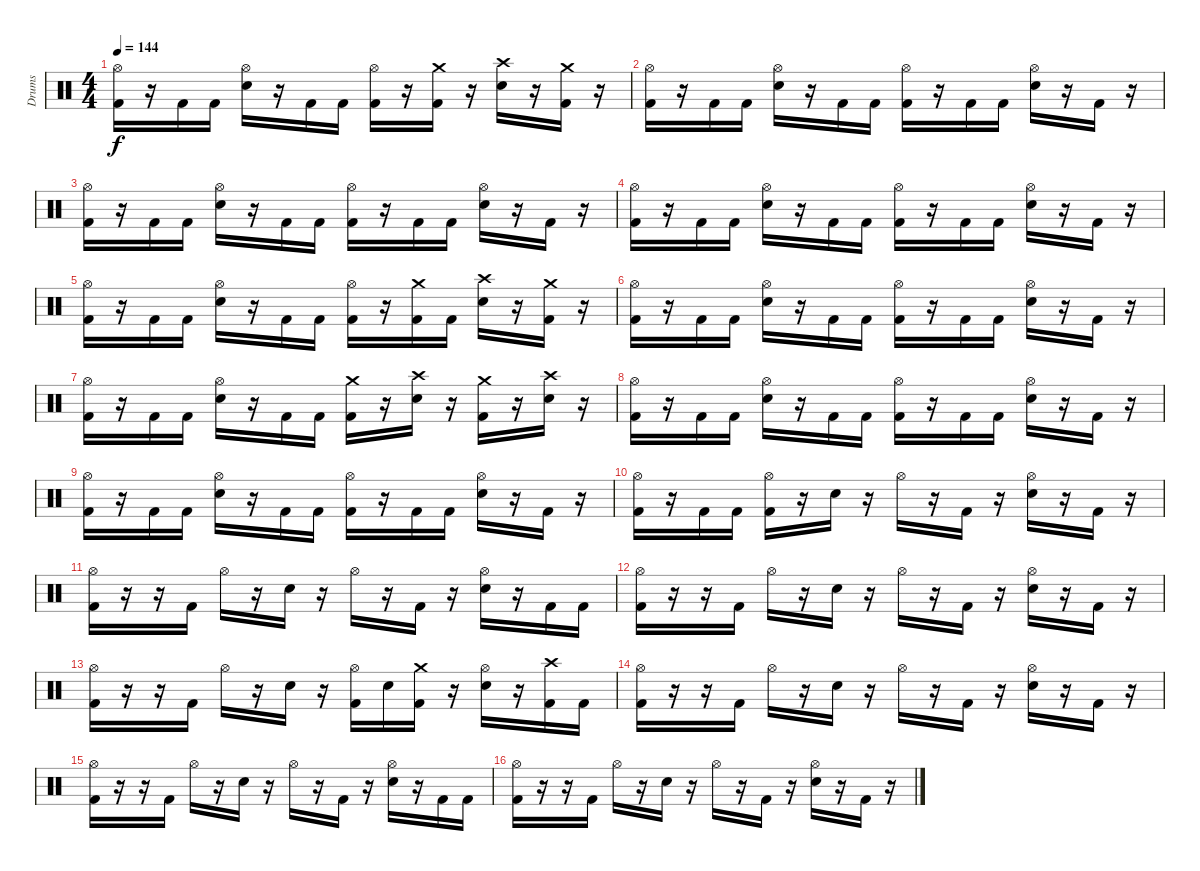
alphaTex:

\track ("Drums" "Drums") {instrument percussion}
\staff {score}
\articulation defaults
\ts (4 4)
\tempo 144
\clef neutral
\ks c
("Hi-Hat (open)" "Kick (hit) 2").16{dy f} r.16 "Kick (hit) 2".16 "Kick (hit) 2".16 ("Hi-Hat (open)" "Snare (hit) 2").16 r.16 "Kick (hit) 2".16 "Kick (hit) 2".16 ("Hi-Hat (open)" "Kick (hit) 2").16 r.16 ("Crash medium (hit)" "Kick (hit) 2").16 r.16 ("Crash high (hit)" "Snare (hit) 2").16 r.16 ("Crash medium (hit)" "Kick (hit) 2").16 r.16 |
("Hi-Hat (open)" "Kick (hit) 2").16 r.16 "Kick (hit) 2".16 "Kick (hit) 2".16 ("Hi-Hat (open)" "Snare (hit) 2").16 r.16 "Kick (hit) 2".16 "Kick (hit) 2".16 ("Hi-Hat (open)" "Kick (hit) 2").16 r.16 "Kick (hit) 2".16 "Kick (hit) 2".16 ("Hi-Hat (open)" "Snare (hit) 2").16 r.16 "Kick (hit) 2".16 r.16 |
("Hi-Hat (open)" "Kick (hit) 2").16 r.16 "Kick (hit) 2".16 "Kick (hit) 2".16 ("Hi-Hat (open)" "Snare (hit) 2").16 r.16 "Kick (hit) 2".16 "Kick (hit) 2".16 ("Hi-Hat (open)" "Kick (hit) 2").16 r.16 "Kick (hit) 2".16 "Kick (hit) 2".16 ("Hi-Hat (open)" "Snare (hit) 2").16 r.16 "Kick (hit) 2".16 r.16 |
("Hi-Hat (open)" "Kick (hit) 2").16 r.16 "Kick (hit) 2".16 "Kick (hit) 2".16 ("Hi-Hat (open)" "Snare (hit) 2").16 r.16 "Kick (hit) 2".16 "Kick (hit) 2".16 ("Hi-Hat (open)" "Kick (hit) 2").16 r.16 "Kick (hit) 2".16 "Kick (hit) 2".16 ("Hi-Hat (open)" "Snare (hit) 2").16 r.16 "Kick (hit) 2".16 r.16 |
("Hi-Hat (open)" "Kick (hit) 2").16 r.16 "Kick (hit) 2".16 "Kick (hit) 2".16 ("Hi-Hat (open)" "Snare (hit) 2").16 r.16 "Kick (hit) 2".16 "Kick (hit) 2".16 ("Hi-Hat (open)" "Kick (hit) 2").16 r.16 ("Crash medium (hit)" "Kick (hit) 2").16 "Kick (hit) 2".16 ("Crash high (hit)" "Snare (hit) 2").16 r.16 ("Crash medium (hit)" "Kick (hit) 2").16 r.16 |
("Hi-Hat (open)" "Kick (hit) 2").16 r.16 "Kick (hit) 2".16 "Kick (hit) 2".16 ("Hi-Hat (open)" "Snare (hit) 2").16 r.16 "Kick (hit) 2".16 "Kick (hit) 2".16 ("Hi-Hat (open)" "Kick (hit) 2").16 r.16 "Kick (hit) 2".16 "Kick (hit) 2".16 ("Hi-Hat (open)" "Snare (hit) 2").16 r.16 "Kick (hit) 2".16 r.16 |
("Hi-Hat (open)" "Kick (hit) 2").16 r.16 "Kick (hit) 2".16 "Kick (hit) 2".16 ("Hi-Hat (open)" "Snare (hit) 2").16 r.16 "Kick (hit) 2".16 "Kick (hit) 2".16 ("Crash medium (hit)" "Kick (hit) 2").16 r.16 ("Crash high (hit)" "Snare (hit) 2").16 r.16 ("Crash medium (hit)" "Kick (hit) 2").16 r.16 ("Crash high (hit)" "Snare (hit) 2").16 r.16 |
("Hi-Hat (open)" "Kick (hit) 2").16 r.16 "Kick (hit) 2".16 "Kick (hit) 2".16 ("Hi-Hat (open)" "Snare (hit) 2").16 r.16 "Kick (hit) 2".16 "Kick (hit) 2".16 ("Hi-Hat (open)" "Kick (hit) 2").16 r.16 "Kick (hit) 2".16 "Kick (hit) 2".16 ("Hi-Hat (open)" "Snare (hit) 2").16 r.16 "Kick (hit) 2".16 r.16 |
("Hi-Hat (open)" "Kick (hit) 2").16 r.16 "Kick (hit) 2".16 "Kick (hit) 2".16 ("Hi-Hat (open)" "Snare (hit) 2").16 r.16 "Kick (hit) 2".16 "Kick (hit) 2".16 ("Hi-Hat (open)" "Kick (hit) 2").16 r.16 "Kick (hit) 2".16 "Kick (hit) 2".16 ("Hi-Hat (open)" "Snare (hit) 2").16 r.16 "Kick (hit) 2".16 r.16 |
("Hi-Hat (open)" "Kick (hit) 2").16 r.16 "Kick (hit) 2".16 "Kick (hit) 2".16 ("Hi-Hat (open)" "Kick (hit) 2").16 r.16 "Snare (hit) 2".16 r.16 "Hi-Hat (open)".16 r.16 "Kick (hit) 2".16 r.16 ("Hi-Hat (open)" "Snare (hit) 2").16 r.16 "Kick (hit) 2".16 r.16 |
("Hi-Hat (open)" "Kick (hit) 2").16 r.16 r.16 "Kick (hit) 2".16 "Hi-Hat (open)".16 r.16 "Snare (hit) 2".16 r.16 "Hi-Hat (open)".16 r.16 "Kick (hit) 2".16 r.16 ("Hi-Hat (open)" "Snare (hit) 2").16 r.16 "Kick (hit) 2".16 "Kick (hit) 2".16 |
("Hi-Hat (open)" "Kick (hit) 2").16 r.16 r.16 "Kick (hit) 2".16 "Hi-Hat (open)".16 r.16 "Snare (hit) 2".16 r.16 "Hi-Hat (open)".16 r.16 "Kick (hit) 2".16 r.16 ("Hi-Hat (open)" "Snare (hit) 2").16 r.16 "Kick (hit) 2".16 r.16 |
("Hi-Hat (open)" "Kick (hit) 2").16 r.16 r.16 "Kick (hit) 2".16 "Hi-Hat (open)".16 r.16 "Snare (hit) 2".16 r.16 ("Hi-Hat (open)" "Kick (hit) 2").16 "Snare (hit) 2".16 ("Crash medium (hit)" "Kick (hit) 2").16 r.16 ("Hi-Hat (open)" "Snare (hit) 2").16 r.16 ("Crash high (hit)" "Kick (hit) 2").16 "Kick (hit) 2".16 |
("Hi-Hat (open)" "Kick (hit) 2").16 r.16 r.16 "Kick (hit) 2".16 "Hi-Hat (open)".16 r.16 "Snare (hit) 2".16 r.16 "Hi-Hat (open)".16 r.16 "Kick (hit) 2".16 r.16 ("Hi-Hat (open)" "Snare (hit) 2").16 r.16 "Kick (hit) 2".16 r.16 |
("Hi-Hat (open)" "Kick (hit) 2").16 r.16 r.16 "Kick (hit) 2".16 "Hi-Hat (open)".16 r.16 "Snare (hit) 2".16 r.16 "Hi-Hat (open)".16 r.16 "Kick (hit) 2".16 r.16 ("Hi-Hat (open)" "Snare (hit) 2").16 r.16 "Kick (hit) 2".16 "Kick (hit) 2".16 |
("Hi-Hat (open)" "Kick (hit) 2").16 r.16 r.16 "Kick (hit) 2".16 "Hi-Hat (open)".16 r.16 "Snare (hit) 2".16 r.16 "Hi-Hat (open)".16 r.16 "Kick (hit) 2".16 r.16 ("Hi-Hat (open)" "Snare (hit) 2").16 r.16 "Kick (hit) 2".16 r.16
